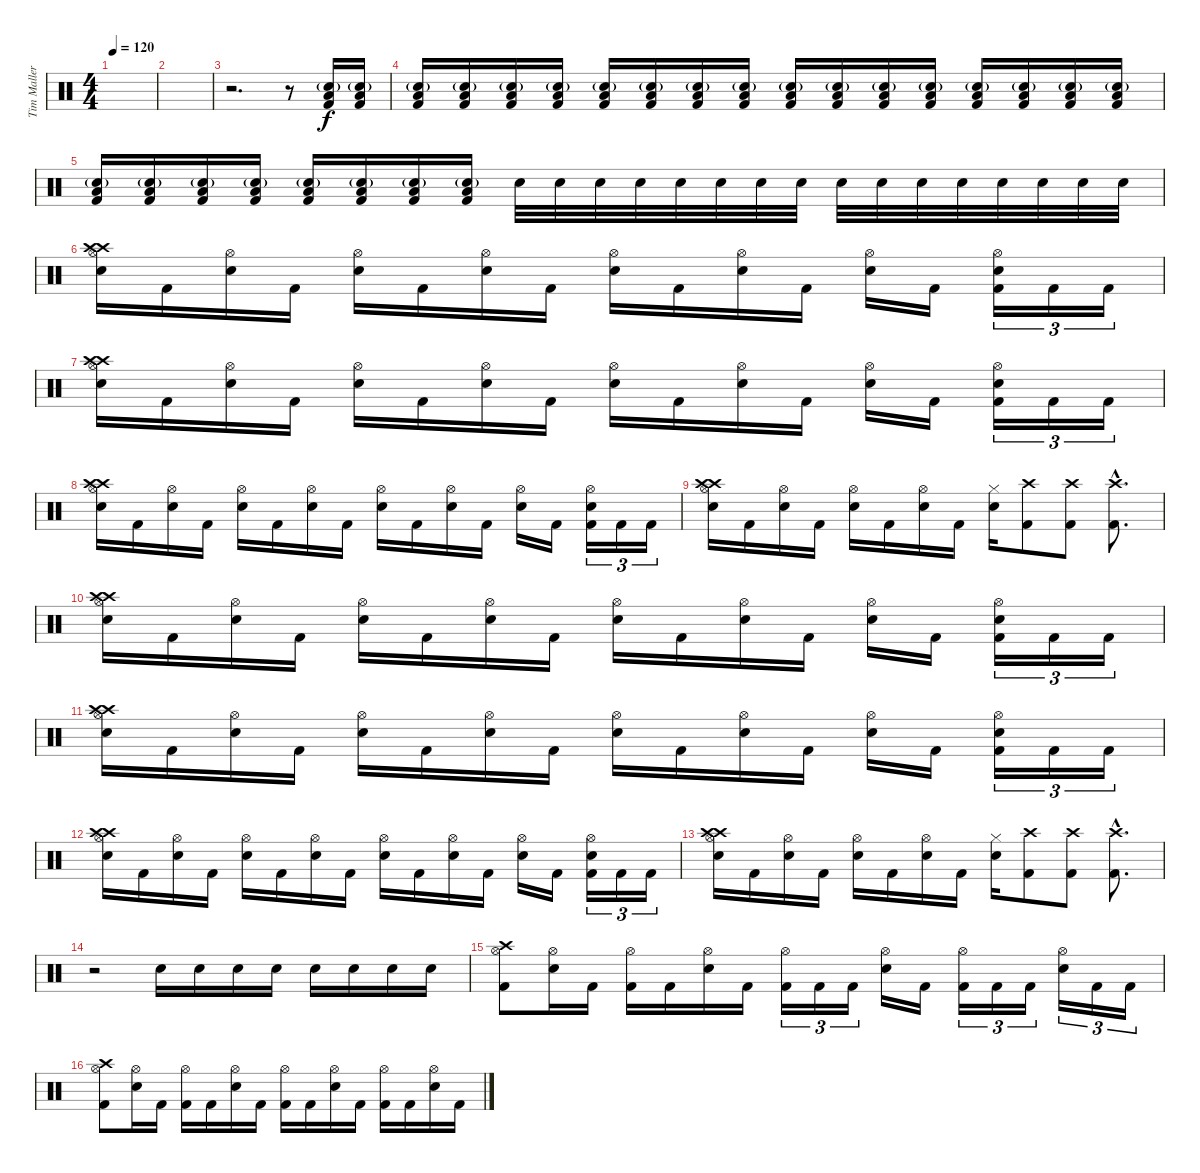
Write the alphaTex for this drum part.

\track ("Tim Mallere" "Tim Maller") {instrument percussion}
\staff {score}
\articulation defaults
\ts (4 4)
\tempo 120
\clef neutral
\ks c
|
|
r.2{d} r.8 ("Low Floor Tom (hit)" "Electric Snare (hit)"{g} "Kick (hit) 2").16 ("Low Floor Tom (hit)" "Electric Snare (hit)"{g} "Kick (hit) 2").16 |
("Low Floor Tom (hit)" "Electric Snare (hit)"{g} "Kick (hit) 2").16 ("Low Floor Tom (hit)" "Electric Snare (hit)"{g} "Kick (hit) 2").16 ("Low Floor Tom (hit)" "Electric Snare (hit)"{g} "Kick (hit) 2").16 ("Low Floor Tom (hit)" "Electric Snare (hit)"{g} "Kick (hit) 2").16 ("Low Floor Tom (hit)" "Electric Snare (hit)"{g} "Kick (hit) 2").16 ("Low Floor Tom (hit)" "Electric Snare (hit)"{g} "Kick (hit) 2").16 ("Low Floor Tom (hit)" "Electric Snare (hit)"{g} "Kick (hit) 2").16 ("Low Floor Tom (hit)" "Electric Snare (hit)"{g} "Kick (hit) 2").16 ("Low Floor Tom (hit)" "Electric Snare (hit)"{g} "Kick (hit) 2").16 ("Low Floor Tom (hit)" "Electric Snare (hit)"{g} "Kick (hit) 2").16 ("Low Floor Tom (hit)" "Electric Snare (hit)"{g} "Kick (hit) 2").16 ("Low Floor Tom (hit)" "Electric Snare (hit)"{g} "Kick (hit) 2").16 ("Low Floor Tom (hit)" "Electric Snare (hit)"{g} "Kick (hit) 2").16 ("Low Floor Tom (hit)" "Electric Snare (hit)"{g} "Kick (hit) 2").16 ("Low Floor Tom (hit)" "Electric Snare (hit)"{g} "Kick (hit) 2").16 ("Low Floor Tom (hit)" "Electric Snare (hit)"{g} "Kick (hit) 2").16 |
("Low Floor Tom (hit)" "Electric Snare (hit)"{g} "Kick (hit) 2").16 ("Low Floor Tom (hit)" "Electric Snare (hit)"{g} "Kick (hit) 2").16 ("Low Floor Tom (hit)" "Electric Snare (hit)"{g} "Kick (hit) 2").16 ("Low Floor Tom (hit)" "Electric Snare (hit)"{g} "Kick (hit) 2").16 ("Low Floor Tom (hit)" "Electric Snare (hit)"{g} "Kick (hit) 2").16 ("Low Floor Tom (hit)" "Electric Snare (hit)"{g} "Kick (hit) 2").16 ("Low Floor Tom (hit)" "Electric Snare (hit)"{g} "Kick (hit) 2").16 ("Low Floor Tom (hit)" "Electric Snare (hit)"{g} "Kick (hit) 2").16 "Electric Snare (hit)".32{dy f} "Electric Snare (hit)".32 "Electric Snare (hit)".32 "Electric Snare (hit)".32 "Electric Snare (hit)".32 "Electric Snare (hit)".32 "Electric Snare (hit)".32 "Electric Snare (hit)".32 "Electric Snare (hit)".32 "Electric Snare (hit)".32 "Electric Snare (hit)".32 "Electric Snare (hit)".32 "Electric Snare (hit)".32 "Electric Snare (hit)".32 "Electric Snare (hit)".32 "Electric Snare (hit)".32 |
("Crash high (hit)" "Hi-Hat (open)" "Electric Snare (hit)" "Crash high (hit)").16 "Kick (hit) 2".16 ("Hi-Hat (open)" "Electric Snare (hit)").16 "Kick (hit) 2".16 ("Hi-Hat (open)" "Electric Snare (hit)").16 "Kick (hit) 2".16 ("Hi-Hat (open)" "Electric Snare (hit)").16 "Kick (hit) 2".16 ("Hi-Hat (open)" "Electric Snare (hit)").16 "Kick (hit) 2".16 ("Hi-Hat (open)" "Electric Snare (hit)").16 "Kick (hit) 2".16 ("Hi-Hat (open)" "Electric Snare (hit)").16 "Kick (hit) 2".16 ("Hi-Hat (open)" "Electric Snare (hit)" "Kick (hit) 2").16{tu (3 2)} "Kick (hit) 2".16{tu (3 2)} "Kick (hit) 2".16{tu (3 2)} |
("Crash high (hit)" "Hi-Hat (open)" "Electric Snare (hit)" "Crash high (hit)").16 "Kick (hit) 2".16 ("Hi-Hat (open)" "Electric Snare (hit)").16 "Kick (hit) 2".16 ("Hi-Hat (open)" "Electric Snare (hit)").16 "Kick (hit) 2".16 ("Hi-Hat (open)" "Electric Snare (hit)").16 "Kick (hit) 2".16 ("Hi-Hat (open)" "Electric Snare (hit)").16 "Kick (hit) 2".16 ("Hi-Hat (open)" "Electric Snare (hit)").16 "Kick (hit) 2".16 ("Hi-Hat (open)" "Electric Snare (hit)").16 "Kick (hit) 2".16 ("Hi-Hat (open)" "Electric Snare (hit)" "Kick (hit) 2").16{tu (3 2)} "Kick (hit) 2".16{tu (3 2)} "Kick (hit) 2".16{tu (3 2)} |
("Crash high (hit)" "Hi-Hat (open)" "Electric Snare (hit)" "Crash high (hit)").16 "Kick (hit) 2".16 ("Hi-Hat (open)" "Electric Snare (hit)").16 "Kick (hit) 2".16 ("Hi-Hat (open)" "Electric Snare (hit)").16 "Kick (hit) 2".16 ("Hi-Hat (open)" "Electric Snare (hit)").16 "Kick (hit) 2".16 ("Hi-Hat (open)" "Electric Snare (hit)").16 "Kick (hit) 2".16 ("Hi-Hat (open)" "Electric Snare (hit)").16 "Kick (hit) 2".16 ("Hi-Hat (open)" "Electric Snare (hit)").16 "Kick (hit) 2".16 ("Hi-Hat (open)" "Electric Snare (hit)" "Kick (hit) 2").16{tu (3 2)} "Kick (hit) 2".16{tu (3 2)} "Kick (hit) 2".16{tu (3 2)} |
("Crash high (hit)" "Hi-Hat (open)" "Electric Snare (hit)" "Crash high (hit)").16 "Kick (hit) 2".16 ("Hi-Hat (open)" "Electric Snare (hit)").16 "Kick (hit) 2".16 ("Hi-Hat (open)" "Electric Snare (hit)").16 "Kick (hit) 2".16 ("Hi-Hat (open)" "Electric Snare (hit)").16 "Kick (hit) 2".16 ("Hi-Hat (closed)" "Electric Snare (hit)").16 ("Crash high (hit)" "Kick (hit) 2").8 ("Crash high (hit)" "Kick (hit) 2").8 ("Crash high (hit)"{hac} "Kick (hit) 2"{hac}).8{d} |
("Crash high (hit)" "Hi-Hat (open)" "Electric Snare (hit)" "Crash high (hit)").16 "Kick (hit) 2".16 ("Hi-Hat (open)" "Electric Snare (hit)").16 "Kick (hit) 2".16 ("Hi-Hat (open)" "Electric Snare (hit)").16 "Kick (hit) 2".16 ("Hi-Hat (open)" "Electric Snare (hit)").16 "Kick (hit) 2".16 ("Hi-Hat (open)" "Electric Snare (hit)").16 "Kick (hit) 2".16 ("Hi-Hat (open)" "Electric Snare (hit)").16 "Kick (hit) 2".16 ("Hi-Hat (open)" "Electric Snare (hit)").16 "Kick (hit) 2".16 ("Hi-Hat (open)" "Electric Snare (hit)" "Kick (hit) 2").16{tu (3 2)} "Kick (hit) 2".16{tu (3 2)} "Kick (hit) 2".16{tu (3 2)} |
("Crash high (hit)" "Hi-Hat (open)" "Electric Snare (hit)" "Crash high (hit)").16 "Kick (hit) 2".16 ("Hi-Hat (open)" "Electric Snare (hit)").16 "Kick (hit) 2".16 ("Hi-Hat (open)" "Electric Snare (hit)").16 "Kick (hit) 2".16 ("Hi-Hat (open)" "Electric Snare (hit)").16 "Kick (hit) 2".16 ("Hi-Hat (open)" "Electric Snare (hit)").16 "Kick (hit) 2".16 ("Hi-Hat (open)" "Electric Snare (hit)").16 "Kick (hit) 2".16 ("Hi-Hat (open)" "Electric Snare (hit)").16 "Kick (hit) 2".16 ("Hi-Hat (open)" "Electric Snare (hit)" "Kick (hit) 2").16{tu (3 2)} "Kick (hit) 2".16{tu (3 2)} "Kick (hit) 2".16{tu (3 2)} |
("Crash high (hit)" "Hi-Hat (open)" "Electric Snare (hit)" "Crash high (hit)").16 "Kick (hit) 2".16 ("Hi-Hat (open)" "Electric Snare (hit)").16 "Kick (hit) 2".16 ("Hi-Hat (open)" "Electric Snare (hit)").16 "Kick (hit) 2".16 ("Hi-Hat (open)" "Electric Snare (hit)").16 "Kick (hit) 2".16 ("Hi-Hat (open)" "Electric Snare (hit)").16 "Kick (hit) 2".16 ("Hi-Hat (open)" "Electric Snare (hit)").16 "Kick (hit) 2".16 ("Hi-Hat (open)" "Electric Snare (hit)").16 "Kick (hit) 2".16 ("Hi-Hat (open)" "Electric Snare (hit)" "Kick (hit) 2").16{tu (3 2)} "Kick (hit) 2".16{tu (3 2)} "Kick (hit) 2".16{tu (3 2)} |
("Crash high (hit)" "Hi-Hat (open)" "Electric Snare (hit)" "Crash high (hit)").16 "Kick (hit) 2".16 ("Hi-Hat (open)" "Electric Snare (hit)").16 "Kick (hit) 2".16 ("Hi-Hat (open)" "Electric Snare (hit)").16 "Kick (hit) 2".16 ("Hi-Hat (open)" "Electric Snare (hit)").16 "Kick (hit) 2".16 ("Hi-Hat (closed)" "Electric Snare (hit)").16 ("Crash high (hit)" "Kick (hit) 2").8 ("Crash high (hit)" "Kick (hit) 2").8 ("Crash high (hit)"{hac} "Kick (hit) 2"{hac}).8{d} |
r.2 "Electric Snare (hit)".16 "Electric Snare (hit)".16 "Electric Snare (hit)".16 "Electric Snare (hit)".16 "Electric Snare (hit)".16 "Electric Snare (hit)".16 "Electric Snare (hit)".16 "Electric Snare (hit)".16 |
("Crash high (hit)" "Hi-Hat (open)" "Kick (hit) 2").8 ("Electric Snare (hit)" "Hi-Hat (open)").16 "Kick (hit) 2".16 ("Hi-Hat (open)" "Kick (hit) 2").16 "Kick (hit) 2".16 ("Electric Snare (hit)" "Hi-Hat (open)").16 "Kick (hit) 2".16 ("Hi-Hat (open)" "Kick (hit) 2").16{tu (3 2)} "Kick (hit) 2".16{tu (3 2)} "Kick (hit) 2".16{tu (3 2)} ("Electric Snare (hit)" "Hi-Hat (open)").16 "Kick (hit) 2".16 ("Hi-Hat (open)" "Kick (hit) 2").16{tu (3 2)} "Kick (hit) 2".16{tu (3 2)} "Kick (hit) 2".16{tu (3 2)} ("Electric Snare (hit)" "Hi-Hat (open)").16{tu (3 2)} "Kick (hit) 2".16{tu (3 2)} "Kick (hit) 2".16{tu (3 2)} |
("Crash high (hit)" "Hi-Hat (open)" "Kick (hit) 2").8 ("Hi-Hat (open)" "Electric Snare (hit)").16 "Kick (hit) 2".16 ("Hi-Hat (open)" "Kick (hit) 2").16 "Kick (hit) 2".16 ("Hi-Hat (open)" "Electric Snare (hit)").16 "Kick (hit) 2".16 ("Hi-Hat (open)" "Kick (hit) 2").16 "Kick (hit) 2".16 ("Hi-Hat (open)" "Electric Snare (hit)").16 "Kick (hit) 2".16 ("Hi-Hat (open)" "Kick (hit) 2").16 "Kick (hit) 2".16 ("Hi-Hat (open)" "Electric Snare (hit)").16 "Kick (hit) 2".16
